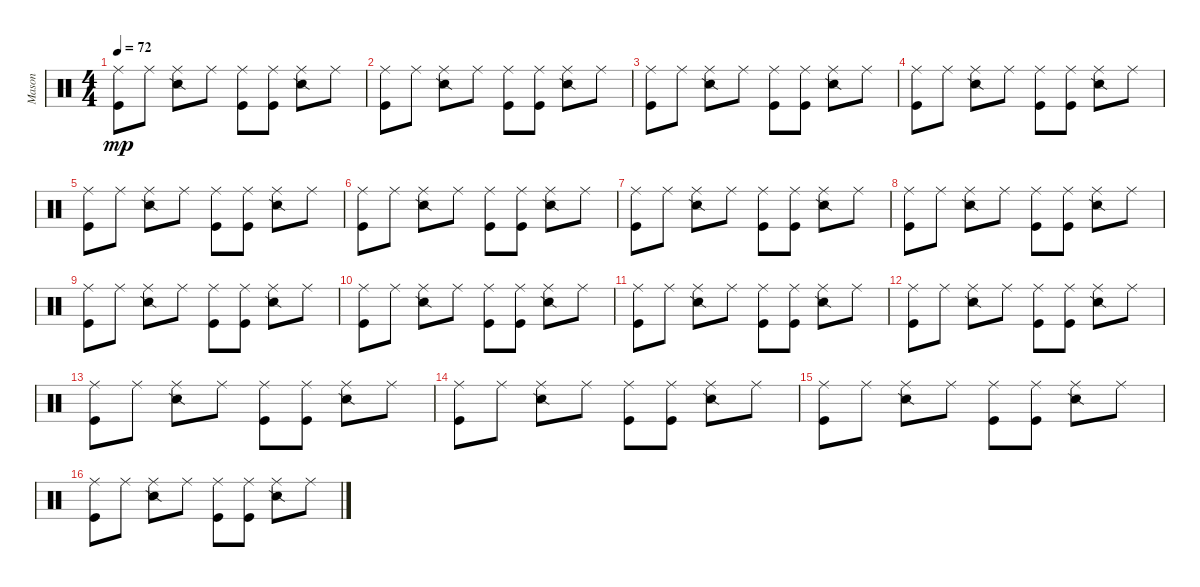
\track ("Mason" "Mason") {instrument percussion}
\staff {score}
\articulation defaults
\ts (4 4)
\tempo 72
\clef neutral
\ks c
("Ride (middle)" "Kick (hit)").8{dy mp} "Ride (middle)".8 ("Ride (middle)" "Snare (side stick) 2").8 "Ride (middle)".8 ("Ride (middle)" "Kick (hit)").8 ("Ride (middle)" "Kick (hit)").8 ("Ride (middle)" "Snare (side stick) 2").8 "Ride (middle)".8 |
("Ride (middle)" "Kick (hit)").8 "Ride (middle)".8 ("Ride (middle)" "Snare (side stick) 2").8 "Ride (middle)".8 ("Ride (middle)" "Kick (hit)").8 ("Ride (middle)" "Kick (hit)").8 ("Ride (middle)" "Snare (side stick) 2").8 "Ride (middle)".8 |
("Ride (middle)" "Kick (hit)").8 "Ride (middle)".8 ("Ride (middle)" "Snare (side stick) 2").8 "Ride (middle)".8 ("Ride (middle)" "Kick (hit)").8 ("Ride (middle)" "Kick (hit)").8 ("Ride (middle)" "Snare (side stick) 2").8 "Ride (middle)".8 |
("Ride (middle)" "Kick (hit)").8 "Ride (middle)".8 ("Ride (middle)" "Snare (side stick) 2").8 "Ride (middle)".8 ("Ride (middle)" "Kick (hit)").8 ("Ride (middle)" "Kick (hit)").8 ("Ride (middle)" "Snare (side stick) 2").8 "Ride (middle)".8 |
("Ride (middle)" "Kick (hit)").8 "Ride (middle)".8 ("Ride (middle)" "Snare (side stick) 2").8 "Ride (middle)".8 ("Ride (middle)" "Kick (hit)").8 ("Ride (middle)" "Kick (hit)").8 ("Ride (middle)" "Snare (side stick) 2").8 "Ride (middle)".8 |
("Ride (middle)" "Kick (hit)").8 "Ride (middle)".8 ("Ride (middle)" "Snare (side stick) 2").8 "Ride (middle)".8 ("Ride (middle)" "Kick (hit)").8 ("Ride (middle)" "Kick (hit)").8 ("Ride (middle)" "Snare (side stick) 2").8 "Ride (middle)".8 |
("Ride (middle)" "Kick (hit)").8 "Ride (middle)".8 ("Ride (middle)" "Snare (side stick) 2").8 "Ride (middle)".8 ("Ride (middle)" "Kick (hit)").8 ("Ride (middle)" "Kick (hit)").8 ("Ride (middle)" "Snare (side stick) 2").8 "Ride (middle)".8 |
("Ride (middle)" "Kick (hit)").8 "Ride (middle)".8 ("Ride (middle)" "Snare (side stick) 2").8 "Ride (middle)".8 ("Ride (middle)" "Kick (hit)").8 ("Ride (middle)" "Kick (hit)").8 ("Ride (middle)" "Snare (side stick) 2").8 "Ride (middle)".8 |
("Ride (middle)" "Kick (hit)").8 "Ride (middle)".8 ("Ride (middle)" "Snare (side stick) 2").8 "Ride (middle)".8 ("Ride (middle)" "Kick (hit)").8 ("Ride (middle)" "Kick (hit)").8 ("Ride (middle)" "Snare (side stick) 2").8 "Ride (middle)".8 |
("Ride (middle)" "Kick (hit)").8 "Ride (middle)".8 ("Ride (middle)" "Snare (side stick) 2").8 "Ride (middle)".8 ("Ride (middle)" "Kick (hit)").8 ("Ride (middle)" "Kick (hit)").8 ("Ride (middle)" "Snare (side stick) 2").8 "Ride (middle)".8 |
("Ride (middle)" "Kick (hit)").8 "Ride (middle)".8 ("Ride (middle)" "Snare (side stick) 2").8 "Ride (middle)".8 ("Ride (middle)" "Kick (hit)").8 ("Ride (middle)" "Kick (hit)").8 ("Ride (middle)" "Snare (side stick) 2").8 "Ride (middle)".8 |
("Ride (middle)" "Kick (hit)").8 "Ride (middle)".8 ("Ride (middle)" "Snare (side stick) 2").8 "Ride (middle)".8 ("Ride (middle)" "Kick (hit)").8 ("Ride (middle)" "Kick (hit)").8 ("Ride (middle)" "Snare (side stick) 2").8 "Ride (middle)".8 |
("Ride (middle)" "Kick (hit)").8 "Ride (middle)".8 ("Ride (middle)" "Snare (side stick) 2").8 "Ride (middle)".8 ("Ride (middle)" "Kick (hit)").8 ("Ride (middle)" "Kick (hit)").8 ("Ride (middle)" "Snare (side stick) 2").8 "Ride (middle)".8 |
("Ride (middle)" "Kick (hit)").8 "Ride (middle)".8 ("Ride (middle)" "Snare (side stick) 2").8 "Ride (middle)".8 ("Ride (middle)" "Kick (hit)").8 ("Ride (middle)" "Kick (hit)").8 ("Ride (middle)" "Snare (side stick) 2").8 "Ride (middle)".8 |
("Ride (middle)" "Kick (hit)").8 "Ride (middle)".8 ("Ride (middle)" "Snare (side stick) 2").8 "Ride (middle)".8 ("Ride (middle)" "Kick (hit)").8 ("Ride (middle)" "Kick (hit)").8 ("Ride (middle)" "Snare (side stick) 2").8 "Ride (middle)".8 |
("Ride (middle)" "Kick (hit)").8 "Ride (middle)".8 ("Ride (middle)" "Snare (side stick) 2").8 "Ride (middle)".8 ("Ride (middle)" "Kick (hit)").8 ("Ride (middle)" "Kick (hit)").8 ("Ride (middle)" "Snare (side stick) 2").8 "Ride (middle)".8
